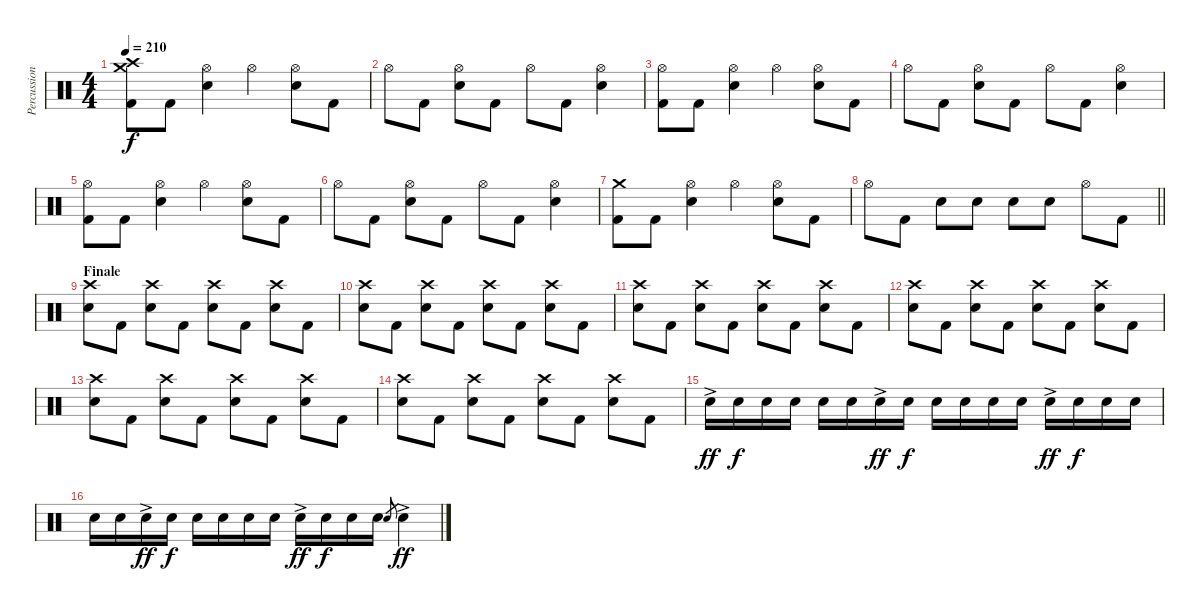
\track ("Percussion" "Percussion") {instrument percussion}
\staff {score}
\articulation defaults
\ts (4 4)
\tempo 210
\clef neutral
\ks c
("Crash medium (hit)" "Crash high (hit)" "Kick (hit) 2").8{dy f} "Kick (hit) 2".8 ("Hi-Hat (open)" "Electric Snare (hit)").4 "Hi-Hat (open)".4 ("Hi-Hat (open)" "Electric Snare (hit)").8 "Kick (hit) 2".8 |
"Hi-Hat (open)".8 "Kick (hit) 2".8 ("Hi-Hat (open)" "Electric Snare (hit)").8 "Kick (hit) 2".8 "Hi-Hat (open)".8 "Kick (hit) 2".8 ("Hi-Hat (open)" "Electric Snare (hit)").4 |
("Hi-Hat (open)" "Kick (hit) 2").8 "Kick (hit) 2".8 ("Hi-Hat (open)" "Electric Snare (hit)").4 "Hi-Hat (open)".4 ("Hi-Hat (open)" "Electric Snare (hit)").8 "Kick (hit) 2".8 |
"Hi-Hat (open)".8 "Kick (hit) 2".8 ("Hi-Hat (open)" "Electric Snare (hit)").8 "Kick (hit) 2".8 "Hi-Hat (open)".8 "Kick (hit) 2".8 ("Hi-Hat (open)" "Electric Snare (hit)").4 |
("Hi-Hat (open)" "Kick (hit) 2").8 "Kick (hit) 2".8 ("Hi-Hat (open)" "Electric Snare (hit)").4 "Hi-Hat (open)".4 ("Hi-Hat (open)" "Electric Snare (hit)").8 "Kick (hit) 2".8 |
"Hi-Hat (open)".8 "Kick (hit) 2".8 ("Hi-Hat (open)" "Electric Snare (hit)").8 "Kick (hit) 2".8 "Hi-Hat (open)".8 "Kick (hit) 2".8 ("Hi-Hat (open)" "Electric Snare (hit)").4 |
("Crash medium (hit)" "Kick (hit) 2").8 "Kick (hit) 2".8 ("Hi-Hat (open)" "Electric Snare (hit)").4 "Hi-Hat (open)".4 ("Hi-Hat (open)" "Electric Snare (hit)").8 "Kick (hit) 2".8 |
\barLineRight lightlight "Hi-Hat (open)".8 "Kick (hit) 2".8 "Electric Snare (hit)".8 "Electric Snare (hit)".8 "Electric Snare (hit)".8 "Electric Snare (hit)".8 "Hi-Hat (open)".8 "Kick (hit) 2".8
|
\section ("" "Finale")
("Crash high (hit)" "Electric Snare (hit)").8 "Kick (hit) 2".8 ("Crash high (hit)" "Electric Snare (hit)").8 "Kick (hit) 2".8 ("Crash high (hit)" "Electric Snare (hit)").8 "Kick (hit) 2".8 ("Crash high (hit)" "Electric Snare (hit)").8 "Kick (hit) 2".8 |
("Crash high (hit)" "Electric Snare (hit)").8 "Kick (hit) 2".8 ("Crash high (hit)" "Electric Snare (hit)").8 "Kick (hit) 2".8 ("Crash high (hit)" "Electric Snare (hit)").8 "Kick (hit) 2".8 ("Crash high (hit)" "Electric Snare (hit)").8 "Kick (hit) 2".8 |
("Crash high (hit)" "Electric Snare (hit)").8 "Kick (hit) 2".8 ("Crash high (hit)" "Electric Snare (hit)").8 "Kick (hit) 2".8 ("Crash high (hit)" "Electric Snare (hit)").8 "Kick (hit) 2".8 ("Crash high (hit)" "Electric Snare (hit)").8 "Kick (hit) 2".8 |
("Crash high (hit)" "Electric Snare (hit)").8 "Kick (hit) 2".8 ("Crash high (hit)" "Electric Snare (hit)").8 "Kick (hit) 2".8 ("Crash high (hit)" "Electric Snare (hit)").8 "Kick (hit) 2".8 ("Crash high (hit)" "Electric Snare (hit)").8 "Kick (hit) 2".8 |
("Crash high (hit)" "Electric Snare (hit)").8 "Kick (hit) 2".8 ("Crash high (hit)" "Electric Snare (hit)").8 "Kick (hit) 2".8 ("Crash high (hit)" "Electric Snare (hit)").8 "Kick (hit) 2".8 ("Crash high (hit)" "Electric Snare (hit)").8 "Kick (hit) 2".8 |
("Crash high (hit)" "Electric Snare (hit)").8 "Kick (hit) 2".8 ("Crash high (hit)" "Electric Snare (hit)").8 "Kick (hit) 2".8 ("Crash high (hit)" "Electric Snare (hit)").8 "Kick (hit) 2".8 ("Crash high (hit)" "Electric Snare (hit)").8 "Kick (hit) 2".8 |
"Electric Snare (hit)"{ac}.16{dy ff volume 12} "Electric Snare (hit)".16{dy f} "Electric Snare (hit)".16 "Electric Snare (hit)".16 "Electric Snare (hit)".16 "Electric Snare (hit)".16 "Electric Snare (hit)"{ac}.16{dy ff} "Electric Snare (hit)".16{dy f} "Electric Snare (hit)".16 "Electric Snare (hit)".16 "Electric Snare (hit)".16 "Electric Snare (hit)".16 "Electric Snare (hit)"{ac}.16{dy ff} "Electric Snare (hit)".16{dy f} "Electric Snare (hit)".16 "Electric Snare (hit)".16 |
"Electric Snare (hit)".16 "Electric Snare (hit)".16 "Electric Snare (hit)"{ac}.16{dy ff} "Electric Snare (hit)".16{dy f} "Electric Snare (hit)".16 "Electric Snare (hit)".16 "Electric Snare (hit)".16 "Electric Snare (hit)".16 "Electric Snare (hit)"{ac}.16{dy ff} "Electric Snare (hit)".16{dy f} "Electric Snare (hit)".16 "Electric Snare (hit)".16 "Electric Snare (hit)".8{gr} "Electric Snare (hit)"{ac}.4{dy ff}
